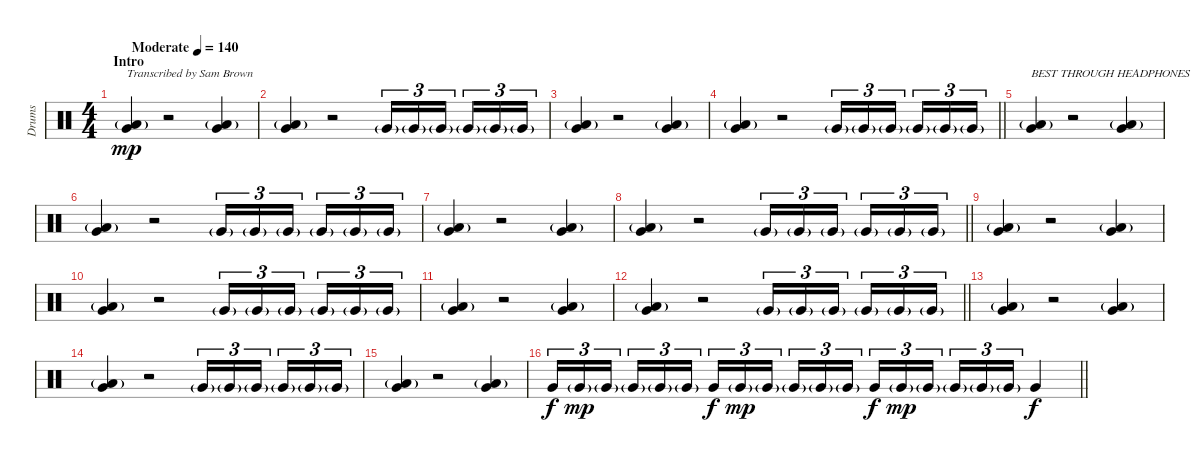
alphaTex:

\track ("Drums" "Drums") {instrument percussion}
\staff {score}
\articulation defaults
\ts (4 4)
\section ("" "Intro")
\tempo (140 "Moderate")
\clef neutral
\ks c
("Very Low Tom (hit)" "Low Tom (hit)"{g}).4{txt "Transcribed by Sam Brown" dy mp} r.2 ("Very Low Tom (hit)" "Low Tom (hit)"{g}).4 |
("Very Low Tom (hit)" "Low Tom (hit)"{g}).4 r.2 "Very Low Tom (hit)"{g}.16{tu (3 2)} "Very Low Tom (hit)"{g}.16{tu (3 2)} "Very Low Tom (hit)"{g}.16{tu (3 2) beam splitsecondary} "Very Low Tom (hit)"{g}.16{tu (3 2)} "Very Low Tom (hit)"{g}.16{tu (3 2)} "Very Low Tom (hit)"{g}.16{tu (3 2)} |
("Very Low Tom (hit)" "Low Tom (hit)"{g}).4 r.2 ("Very Low Tom (hit)" "Low Tom (hit)"{g}).4 |
\barLineRight lightlight
("Very Low Tom (hit)" "Low Tom (hit)"{g}).4 r.2 "Very Low Tom (hit)"{g}.16{tu (3 2)} "Very Low Tom (hit)"{g}.16{tu (3 2)} "Very Low Tom (hit)"{g}.16{tu (3 2) beam splitsecondary} "Very Low Tom (hit)"{g}.16{tu (3 2)} "Very Low Tom (hit)"{g}.16{tu (3 2)} "Very Low Tom (hit)"{g}.16{tu (3 2)} |
\section ("" "")
("Very Low Tom (hit)" "Low Tom (hit)"{g}).4{txt "BEST THROUGH HEADPHONES"} r.2 ("Very Low Tom (hit)" "Low Tom (hit)"{g}).4 |
("Very Low Tom (hit)" "Low Tom (hit)"{g}).4 r.2 "Very Low Tom (hit)"{g}.16{tu (3 2)} "Very Low Tom (hit)"{g}.16{tu (3 2)} "Very Low Tom (hit)"{g}.16{tu (3 2) beam splitsecondary} "Very Low Tom (hit)"{g}.16{tu (3 2)} "Very Low Tom (hit)"{g}.16{tu (3 2)} "Very Low Tom (hit)"{g}.16{tu (3 2)} |
("Very Low Tom (hit)" "Low Tom (hit)"{g}).4 r.2 ("Very Low Tom (hit)" "Low Tom (hit)"{g}).4 |
\barLineRight lightlight
("Very Low Tom (hit)" "Low Tom (hit)"{g}).4 r.2 "Very Low Tom (hit)"{g}.16{tu (3 2)} "Very Low Tom (hit)"{g}.16{tu (3 2)} "Very Low Tom (hit)"{g}.16{tu (3 2) beam splitsecondary} "Very Low Tom (hit)"{g}.16{tu (3 2)} "Very Low Tom (hit)"{g}.16{tu (3 2)} "Very Low Tom (hit)"{g}.16{tu (3 2)} |
\section ("" "")
("Very Low Tom (hit)" "Low Tom (hit)"{g}).4 r.2 ("Very Low Tom (hit)" "Low Tom (hit)"{g}).4 |
("Very Low Tom (hit)" "Low Tom (hit)"{g}).4 r.2 "Very Low Tom (hit)"{g}.16{tu (3 2)} "Very Low Tom (hit)"{g}.16{tu (3 2)} "Very Low Tom (hit)"{g}.16{tu (3 2) beam splitsecondary} "Very Low Tom (hit)"{g}.16{tu (3 2)} "Very Low Tom (hit)"{g}.16{tu (3 2)} "Very Low Tom (hit)"{g}.16{tu (3 2)} |
("Very Low Tom (hit)" "Low Tom (hit)"{g}).4 r.2 ("Very Low Tom (hit)" "Low Tom (hit)"{g}).4 |
\barLineRight lightlight
("Very Low Tom (hit)" "Low Tom (hit)"{g}).4 r.2 "Very Low Tom (hit)"{g}.16{tu (3 2)} "Very Low Tom (hit)"{g}.16{tu (3 2)} "Very Low Tom (hit)"{g}.16{tu (3 2) beam splitsecondary} "Very Low Tom (hit)"{g}.16{tu (3 2)} "Very Low Tom (hit)"{g}.16{tu (3 2)} "Very Low Tom (hit)"{g}.16{tu (3 2)} |
\section ("" "")
("Very Low Tom (hit)" "Low Tom (hit)"{g}).4 r.2 ("Very Low Tom (hit)" "Low Tom (hit)"{g}).4 |
("Very Low Tom (hit)" "Low Tom (hit)"{g}).4 r.2 "Very Low Tom (hit)"{g}.16{tu (3 2)} "Very Low Tom (hit)"{g}.16{tu (3 2)} "Very Low Tom (hit)"{g}.16{tu (3 2) beam splitsecondary} "Very Low Tom (hit)"{g}.16{tu (3 2)} "Very Low Tom (hit)"{g}.16{tu (3 2)} "Very Low Tom (hit)"{g}.16{tu (3 2)} |
("Very Low Tom (hit)" "Low Tom (hit)"{g}).4 r.2 ("Very Low Tom (hit)" "Low Tom (hit)"{g}).4 |
\barLineRight lightlight "Very Low Tom (hit)".16{tu (3 2) dy f volume 10} "Very Low Tom (hit)"{g}.16{tu (3 2) dy mp} "Very Low Tom (hit)"{g}.16{tu (3 2) beam splitsecondary} "Very Low Tom (hit)"{g}.16{tu (3 2)} "Very Low Tom (hit)"{g}.16{tu (3 2)} "Very Low Tom (hit)"{g}.16{tu (3 2)} "Very Low Tom (hit)".16{tu (3 2) dy f} "Very Low Tom (hit)"{g}.16{tu (3 2) dy mp} "Very Low Tom (hit)"{g}.16{tu (3 2) beam splitsecondary} "Very Low Tom (hit)"{g}.16{tu (3 2)} "Very Low Tom (hit)"{g}.16{tu (3 2)} "Very Low Tom (hit)"{g}.16{tu (3 2)} "Very Low Tom (hit)".16{tu (3 2) dy f} "Very Low Tom (hit)"{g}.16{tu (3 2) dy mp} "Very Low Tom (hit)"{g}.16{tu (3 2) beam splitsecondary} "Very Low Tom (hit)"{g}.16{tu (3 2)} "Very Low Tom (hit)"{g}.16{tu (3 2)} "Very Low Tom (hit)"{g}.16{tu (3 2)} "Very Low Tom (hit)".4{dy f}
